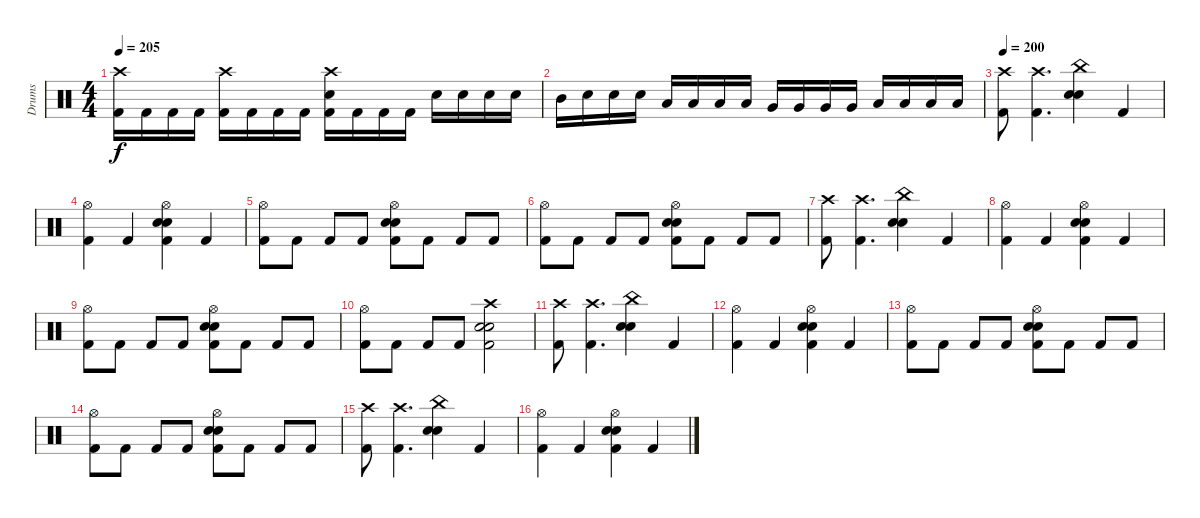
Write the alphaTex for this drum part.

\track ("Drums" "Drums") {instrument percussion bank 169}
\staff {score}
\articulation defaults
\ts (4 4)
\tempo 205
\clef neutral
\ks c
("Crash high (hit)" "Kick (hit) 2").16{dy f} "Kick (hit) 2".16 "Kick (hit) 2".16 "Kick (hit) 2".16 ("Crash high (hit)" "Kick (hit) 2").16 "Kick (hit) 2".16 "Kick (hit) 2".16 "Kick (hit) 2".16 ("Crash high (hit)" "Snare (hit) 2" "Kick (hit) 2").16 "Kick (hit) 2".16 "Kick (hit) 2".16 "Kick (hit) 2".16 "Snare (hit) 2".16 "Snare (hit) 2".16 "Snare (hit) 2".16 "Snare (hit) 2".16 |
"Mid Tom (hit)".16 "Snare (hit) 2".16 "Snare (hit) 2".16 "Snare (hit) 2".16 "Low Tom (hit)".16 "Low Tom (hit)".16 "Low Tom (hit)".16 "Low Tom (hit)".16 "Very Low Tom (hit)".16 "Very Low Tom (hit)".16 "Very Low Tom (hit)".16 "Very Low Tom (hit)".16 "Low Floor Tom (hit)".16 "Low Floor Tom (hit)".16 "Low Floor Tom (hit)".16 "Low Floor Tom (hit)".16 |
\tempo 200
("Crash high (hit)" "Kick (hit) 2").8 ("Crash high (hit)" "Kick (hit) 2").4{d} ("China (hit)" "Snare (hit) 2" "Snare (hit) 2").4 "Kick (hit) 2".4 |
("Hi-Hat (open)" "Kick (hit) 2").4 "Kick (hit) 2".4 ("Hi-Hat (open)" "Snare (hit) 2" "Snare (hit) 2" "Kick (hit) 2").4 "Kick (hit) 2".4 |
("Hi-Hat (open)" "Kick (hit) 2").8 "Kick (hit) 2".8 "Kick (hit) 2".8 "Kick (hit) 2".8 ("Hi-Hat (open)" "Snare (hit) 2" "Snare (hit) 2" "Kick (hit) 2").8 "Kick (hit) 2".8 "Kick (hit) 2".8 "Kick (hit) 2".8 |
("Hi-Hat (open)" "Kick (hit) 2").8 "Kick (hit) 2".8 "Kick (hit) 2".8 "Kick (hit) 2".8 ("Hi-Hat (open)" "Snare (hit) 2" "Snare (hit) 2" "Kick (hit) 2").8 "Kick (hit) 2".8 "Kick (hit) 2".8 "Kick (hit) 2".8 |
("Crash high (hit)" "Kick (hit) 2").8 ("Crash high (hit)" "Kick (hit) 2").4{d} ("China (hit)" "Snare (hit) 2" "Snare (hit) 2").4 "Kick (hit) 2".4 |
("Hi-Hat (open)" "Kick (hit) 2").4 "Kick (hit) 2".4 ("Hi-Hat (open)" "Snare (hit) 2" "Snare (hit) 2" "Kick (hit) 2").4 "Kick (hit) 2".4 |
("Hi-Hat (open)" "Kick (hit) 2").8 "Kick (hit) 2".8 "Kick (hit) 2".8 "Kick (hit) 2".8 ("Hi-Hat (open)" "Snare (hit) 2" "Snare (hit) 2" "Kick (hit) 2").8 "Kick (hit) 2".8 "Kick (hit) 2".8 "Kick (hit) 2".8 |
("Hi-Hat (open)" "Kick (hit) 2").8 "Kick (hit) 2".8 "Kick (hit) 2".8 "Kick (hit) 2".8 ("Crash high (hit)" "Snare (hit) 2" "Snare (hit) 2" "Kick (hit) 2").2 |
("Crash high (hit)" "Kick (hit) 2").8 ("Crash high (hit)" "Kick (hit) 2").4{d} ("China (hit)" "Snare (hit) 2" "Snare (hit) 2").4 "Kick (hit) 2".4 |
("Hi-Hat (open)" "Kick (hit) 2").4 "Kick (hit) 2".4 ("Hi-Hat (open)" "Snare (hit) 2" "Snare (hit) 2" "Kick (hit) 2").4 "Kick (hit) 2".4 |
("Hi-Hat (open)" "Kick (hit) 2").8 "Kick (hit) 2".8 "Kick (hit) 2".8 "Kick (hit) 2".8 ("Hi-Hat (open)" "Snare (hit) 2" "Snare (hit) 2" "Kick (hit) 2").8 "Kick (hit) 2".8 "Kick (hit) 2".8 "Kick (hit) 2".8 |
("Hi-Hat (open)" "Kick (hit) 2").8 "Kick (hit) 2".8 "Kick (hit) 2".8 "Kick (hit) 2".8 ("Hi-Hat (open)" "Snare (hit) 2" "Snare (hit) 2" "Kick (hit) 2").8 "Kick (hit) 2".8 "Kick (hit) 2".8 "Kick (hit) 2".8 |
("Crash high (hit)" "Kick (hit) 2").8 ("Crash high (hit)" "Kick (hit) 2").4{d} ("China (hit)" "Snare (hit) 2" "Snare (hit) 2").4 "Kick (hit) 2".4 |
("Hi-Hat (open)" "Kick (hit) 2").4 "Kick (hit) 2".4 ("Hi-Hat (open)" "Snare (hit) 2" "Snare (hit) 2" "Kick (hit) 2").4 "Kick (hit) 2".4
